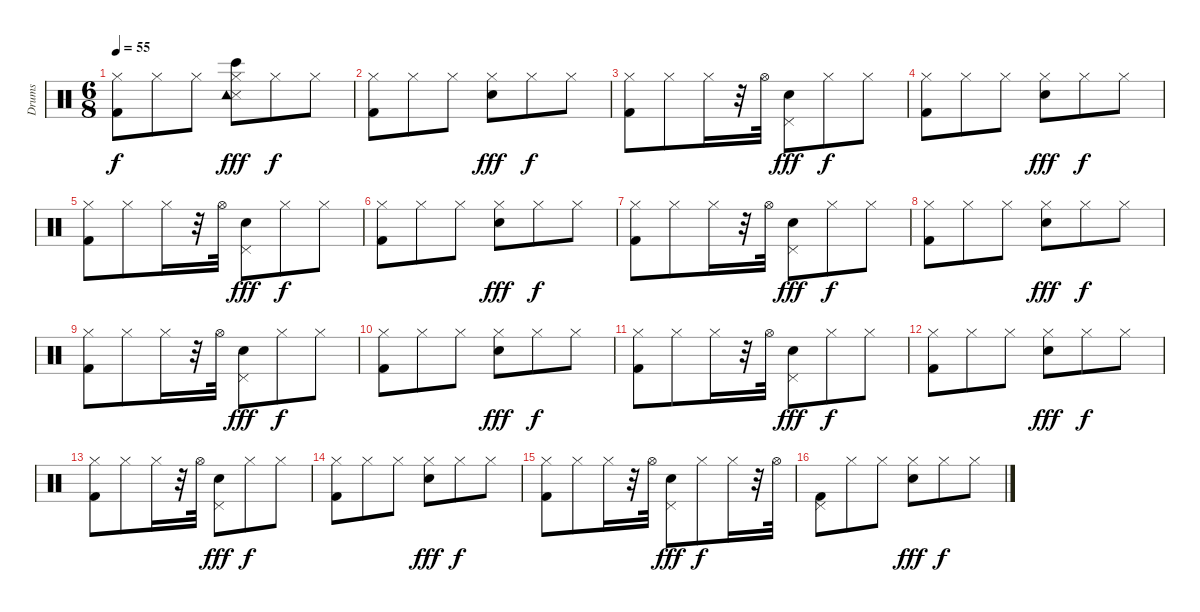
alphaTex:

\track ("Drums               " "Drums     ") {instrument percussion}
\staff {score}
\articulation defaults
\ts (6 8)
\tempo 55
\clef neutral
\ks c
("Kick (hit) 2" "Hi-Hat (closed)").8{dy f} "Hi-Hat (closed)".8 "Hi-Hat (closed)".8 ("Hi-Hat (closed)" "Snare (side stick) 3" "Bongo High (hit)" "Tambourine (hit)").8{dy fff} "Hi-Hat (closed)".8{dy f} "Hi-Hat (closed)".8 |
("Kick (hit) 2" "Hi-Hat (closed)").8 "Hi-Hat (closed)".8 "Hi-Hat (closed)".8 ("Hi-Hat (closed)" "Snare (hit) 2").8{dy fff} "Hi-Hat (closed)".8{dy f} "Hi-Hat (closed)".8 |
("Kick (hit) 2" "Hi-Hat (closed)").8 "Hi-Hat (closed)".8 "Hi-Hat (closed)".16 r.32 "Hi-Hat (open)".32 ("Snare (hit) 2" "Pedal Hi-Hat (hit)").8{dy fff} "Hi-Hat (closed)".8{dy f} "Hi-Hat (closed)".8 |
("Kick (hit) 2" "Hi-Hat (closed)").8 "Hi-Hat (closed)".8 "Hi-Hat (closed)".8 ("Hi-Hat (closed)" "Snare (hit) 2").8{dy fff} "Hi-Hat (closed)".8{dy f} "Hi-Hat (closed)".8 |
("Kick (hit) 2" "Hi-Hat (closed)").8 "Hi-Hat (closed)".8 "Hi-Hat (closed)".16 r.32 "Hi-Hat (open)".32 ("Snare (hit) 2" "Pedal Hi-Hat (hit)").8{dy fff} "Hi-Hat (closed)".8{dy f} "Hi-Hat (closed)".8 |
("Kick (hit) 2" "Hi-Hat (closed)").8 "Hi-Hat (closed)".8 "Hi-Hat (closed)".8 ("Hi-Hat (closed)" "Snare (hit) 2").8{dy fff} "Hi-Hat (closed)".8{dy f} "Hi-Hat (closed)".8 |
("Kick (hit) 2" "Hi-Hat (closed)").8 "Hi-Hat (closed)".8 "Hi-Hat (closed)".16 r.32 "Hi-Hat (open)".32 ("Snare (hit) 2" "Pedal Hi-Hat (hit)").8{dy fff} "Hi-Hat (closed)".8{dy f} "Hi-Hat (closed)".8 |
("Kick (hit) 2" "Hi-Hat (closed)").8 "Hi-Hat (closed)".8 "Hi-Hat (closed)".8 ("Hi-Hat (closed)" "Snare (hit) 2").8{dy fff} "Hi-Hat (closed)".8{dy f} "Hi-Hat (closed)".8 |
("Kick (hit) 2" "Hi-Hat (closed)").8 "Hi-Hat (closed)".8 "Hi-Hat (closed)".16 r.32 "Hi-Hat (open)".32 ("Snare (hit) 2" "Pedal Hi-Hat (hit)").8{dy fff} "Hi-Hat (closed)".8{dy f} "Hi-Hat (closed)".8 |
("Kick (hit) 2" "Hi-Hat (closed)").8 "Hi-Hat (closed)".8 "Hi-Hat (closed)".8 ("Hi-Hat (closed)" "Snare (hit) 2").8{dy fff} "Hi-Hat (closed)".8{dy f} "Hi-Hat (closed)".8 |
("Kick (hit) 2" "Hi-Hat (closed)").8 "Hi-Hat (closed)".8 "Hi-Hat (closed)".16 r.32 "Hi-Hat (open)".32 ("Snare (hit) 2" "Pedal Hi-Hat (hit)").8{dy fff} "Hi-Hat (closed)".8{dy f} "Hi-Hat (closed)".8 |
("Kick (hit) 2" "Hi-Hat (closed)").8 "Hi-Hat (closed)".8 "Hi-Hat (closed)".8 ("Hi-Hat (closed)" "Snare (hit) 2").8{dy fff} "Hi-Hat (closed)".8{dy f} "Hi-Hat (closed)".8 |
("Kick (hit) 2" "Hi-Hat (closed)").8 "Hi-Hat (closed)".8 "Hi-Hat (closed)".16 r.32 "Hi-Hat (open)".32 ("Snare (hit) 2" "Pedal Hi-Hat (hit)").8{dy fff} "Hi-Hat (closed)".8{dy f} "Hi-Hat (closed)".8 |
("Kick (hit) 2" "Hi-Hat (closed)").8 "Hi-Hat (closed)".8 "Hi-Hat (closed)".8 ("Hi-Hat (closed)" "Snare (hit) 2").8{dy fff} "Hi-Hat (closed)".8{dy f} "Hi-Hat (closed)".8 |
("Kick (hit) 2" "Hi-Hat (closed)").8 "Hi-Hat (closed)".8 "Hi-Hat (closed)".16 r.32 "Hi-Hat (open)".32 ("Snare (hit) 2" "Pedal Hi-Hat (hit)").8{dy fff} "Hi-Hat (closed)".8{dy f} "Hi-Hat (closed)".16 r.32 "Hi-Hat (open)".32 |
("Pedal Hi-Hat (hit)" "Kick (hit) 2").8 "Hi-Hat (closed)".8 "Hi-Hat (closed)".8 ("Hi-Hat (closed)" "Snare (hit) 2").8{dy fff} "Hi-Hat (closed)".8{dy f} "Hi-Hat (closed)".8
